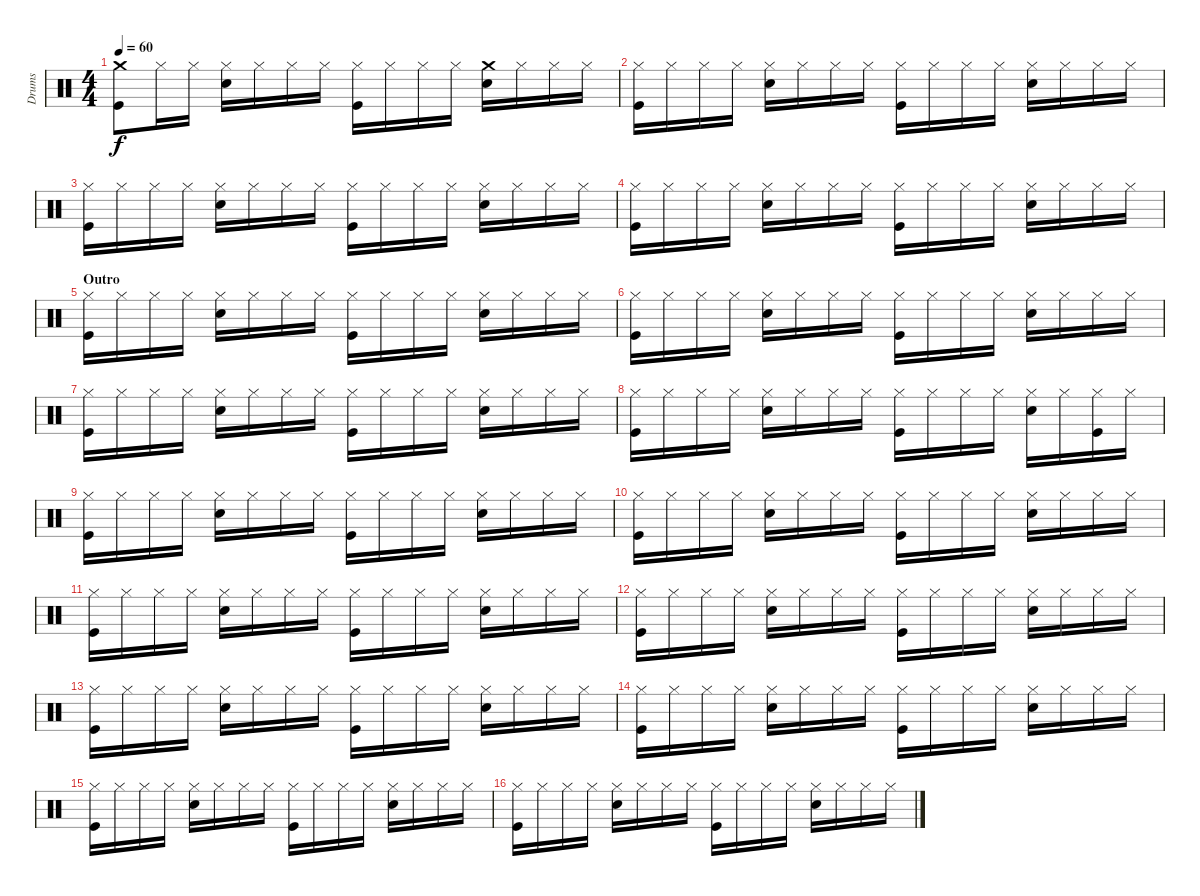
\track ("Drums" "Drums") {instrument percussion}
\staff {score}
\articulation defaults
\ts (4 4)
\tempo 60
\clef neutral
\ks c
("Kick (hit)" "Crash medium (hit)").8{dy f} "Hi-Hat (closed)".16 "Hi-Hat (closed)".16 ("Electric Snare (hit)" "Hi-Hat (closed)").16 "Hi-Hat (closed)".16 "Hi-Hat (closed)".16 "Hi-Hat (closed)".16 ("Kick (hit)" "Hi-Hat (closed)").16 "Hi-Hat (closed)".16 "Hi-Hat (closed)".16 "Hi-Hat (closed)".16 ("Electric Snare (hit)" "Crash medium (hit)").16 "Hi-Hat (closed)".16 "Hi-Hat (closed)".16 "Hi-Hat (closed)".16 |
("Kick (hit)" "Hi-Hat (closed)").16 "Hi-Hat (closed)".16 "Hi-Hat (closed)".16 "Hi-Hat (closed)".16 ("Electric Snare (hit)" "Hi-Hat (closed)").16 "Hi-Hat (closed)".16 "Hi-Hat (closed)".16 "Hi-Hat (closed)".16 ("Kick (hit)" "Hi-Hat (closed)").16 "Hi-Hat (closed)".16 "Hi-Hat (closed)".16 "Hi-Hat (closed)".16 ("Electric Snare (hit)" "Hi-Hat (closed)").16 "Hi-Hat (closed)".16 "Hi-Hat (closed)".16 "Hi-Hat (closed)".16 |
("Kick (hit)" "Hi-Hat (closed)").16 "Hi-Hat (closed)".16 "Hi-Hat (closed)".16 "Hi-Hat (closed)".16 ("Electric Snare (hit)" "Hi-Hat (closed)").16 "Hi-Hat (closed)".16 "Hi-Hat (closed)".16 "Hi-Hat (closed)".16 ("Kick (hit)" "Hi-Hat (closed)").16 "Hi-Hat (closed)".16 "Hi-Hat (closed)".16 "Hi-Hat (closed)".16 ("Electric Snare (hit)" "Hi-Hat (closed)").16 "Hi-Hat (closed)".16 "Hi-Hat (closed)".16 "Hi-Hat (closed)".16 |
("Kick (hit)" "Hi-Hat (closed)").16 "Hi-Hat (closed)".16 "Hi-Hat (closed)".16 "Hi-Hat (closed)".16 ("Electric Snare (hit)" "Hi-Hat (closed)").16 "Hi-Hat (closed)".16 "Hi-Hat (closed)".16 "Hi-Hat (closed)".16 ("Kick (hit)" "Hi-Hat (closed)").16 "Hi-Hat (closed)".16 "Hi-Hat (closed)".16 "Hi-Hat (closed)".16 ("Electric Snare (hit)" "Hi-Hat (closed)").16 "Hi-Hat (closed)".16 "Hi-Hat (closed)".16 "Hi-Hat (closed)".16 |
\section ("" "Outro")
("Kick (hit)" "Hi-Hat (closed)").16 "Hi-Hat (closed)".16 "Hi-Hat (closed)".16 "Hi-Hat (closed)".16 ("Electric Snare (hit)" "Hi-Hat (closed)").16 "Hi-Hat (closed)".16 "Hi-Hat (closed)".16 "Hi-Hat (closed)".16 ("Kick (hit)" "Hi-Hat (closed)").16 "Hi-Hat (closed)".16 "Hi-Hat (closed)".16 "Hi-Hat (closed)".16 ("Electric Snare (hit)" "Hi-Hat (closed)").16 "Hi-Hat (closed)".16 "Hi-Hat (closed)".16 "Hi-Hat (closed)".16 |
("Kick (hit)" "Hi-Hat (closed)").16 "Hi-Hat (closed)".16 "Hi-Hat (closed)".16 "Hi-Hat (closed)".16 ("Electric Snare (hit)" "Hi-Hat (closed)").16 "Hi-Hat (closed)".16 "Hi-Hat (closed)".16 "Hi-Hat (closed)".16 ("Kick (hit)" "Hi-Hat (closed)").16 "Hi-Hat (closed)".16 "Hi-Hat (closed)".16 "Hi-Hat (closed)".16 ("Electric Snare (hit)" "Hi-Hat (closed)").16 "Hi-Hat (closed)".16 "Hi-Hat (closed)".16 "Hi-Hat (closed)".16 |
("Kick (hit)" "Hi-Hat (closed)").16 "Hi-Hat (closed)".16 "Hi-Hat (closed)".16 "Hi-Hat (closed)".16 ("Electric Snare (hit)" "Hi-Hat (closed)").16 "Hi-Hat (closed)".16 "Hi-Hat (closed)".16 "Hi-Hat (closed)".16 ("Kick (hit)" "Hi-Hat (closed)").16 "Hi-Hat (closed)".16 "Hi-Hat (closed)".16 "Hi-Hat (closed)".16 ("Electric Snare (hit)" "Hi-Hat (closed)").16 "Hi-Hat (closed)".16 "Hi-Hat (closed)".16 "Hi-Hat (closed)".16 |
("Kick (hit)" "Hi-Hat (closed)").16 "Hi-Hat (closed)".16 "Hi-Hat (closed)".16 "Hi-Hat (closed)".16 ("Electric Snare (hit)" "Hi-Hat (closed)").16 "Hi-Hat (closed)".16 "Hi-Hat (closed)".16 "Hi-Hat (closed)".16 ("Kick (hit)" "Hi-Hat (closed)").16 "Hi-Hat (closed)".16 "Hi-Hat (closed)".16 "Hi-Hat (closed)".16 ("Electric Snare (hit)" "Hi-Hat (closed)").16 "Hi-Hat (closed)".16 ("Kick (hit)" "Hi-Hat (closed)").16 "Hi-Hat (closed)".16 |
("Kick (hit)" "Hi-Hat (closed)").16 "Hi-Hat (closed)".16 "Hi-Hat (closed)".16 "Hi-Hat (closed)".16 ("Electric Snare (hit)" "Hi-Hat (closed)").16 "Hi-Hat (closed)".16 "Hi-Hat (closed)".16 "Hi-Hat (closed)".16 ("Kick (hit)" "Hi-Hat (closed)").16 "Hi-Hat (closed)".16 "Hi-Hat (closed)".16 "Hi-Hat (closed)".16 ("Electric Snare (hit)" "Hi-Hat (closed)").16 "Hi-Hat (closed)".16 "Hi-Hat (closed)".16 "Hi-Hat (closed)".16 |
("Kick (hit)" "Hi-Hat (closed)").16 "Hi-Hat (closed)".16 "Hi-Hat (closed)".16 "Hi-Hat (closed)".16 ("Electric Snare (hit)" "Hi-Hat (closed)").16 "Hi-Hat (closed)".16 "Hi-Hat (closed)".16 "Hi-Hat (closed)".16 ("Kick (hit)" "Hi-Hat (closed)").16 "Hi-Hat (closed)".16 "Hi-Hat (closed)".16 "Hi-Hat (closed)".16 ("Electric Snare (hit)" "Hi-Hat (closed)").16 "Hi-Hat (closed)".16 "Hi-Hat (closed)".16 "Hi-Hat (closed)".16 |
("Kick (hit)" "Hi-Hat (closed)").16 "Hi-Hat (closed)".16 "Hi-Hat (closed)".16 "Hi-Hat (closed)".16 ("Electric Snare (hit)" "Hi-Hat (closed)").16 "Hi-Hat (closed)".16 "Hi-Hat (closed)".16 "Hi-Hat (closed)".16 ("Kick (hit)" "Hi-Hat (closed)").16 "Hi-Hat (closed)".16 "Hi-Hat (closed)".16 "Hi-Hat (closed)".16 ("Electric Snare (hit)" "Hi-Hat (closed)").16 "Hi-Hat (closed)".16 "Hi-Hat (closed)".16 "Hi-Hat (closed)".16 |
("Kick (hit)" "Hi-Hat (closed)").16 "Hi-Hat (closed)".16 "Hi-Hat (closed)".16 "Hi-Hat (closed)".16 ("Electric Snare (hit)" "Hi-Hat (closed)").16 "Hi-Hat (closed)".16 "Hi-Hat (closed)".16 "Hi-Hat (closed)".16 ("Kick (hit)" "Hi-Hat (closed)").16 "Hi-Hat (closed)".16 "Hi-Hat (closed)".16 "Hi-Hat (closed)".16 ("Electric Snare (hit)" "Hi-Hat (closed)").16 "Hi-Hat (closed)".16 "Hi-Hat (closed)".16 "Hi-Hat (closed)".16 |
("Kick (hit)" "Hi-Hat (closed)").16 "Hi-Hat (closed)".16 "Hi-Hat (closed)".16 "Hi-Hat (closed)".16 ("Electric Snare (hit)" "Hi-Hat (closed)").16 "Hi-Hat (closed)".16 "Hi-Hat (closed)".16 "Hi-Hat (closed)".16 ("Kick (hit)" "Hi-Hat (closed)").16 "Hi-Hat (closed)".16 "Hi-Hat (closed)".16 "Hi-Hat (closed)".16 ("Electric Snare (hit)" "Hi-Hat (closed)").16 "Hi-Hat (closed)".16 "Hi-Hat (closed)".16 "Hi-Hat (closed)".16 |
("Kick (hit)" "Hi-Hat (closed)").16 "Hi-Hat (closed)".16 "Hi-Hat (closed)".16 "Hi-Hat (closed)".16 ("Electric Snare (hit)" "Hi-Hat (closed)").16 "Hi-Hat (closed)".16 "Hi-Hat (closed)".16 "Hi-Hat (closed)".16 ("Kick (hit)" "Hi-Hat (closed)").16 "Hi-Hat (closed)".16 "Hi-Hat (closed)".16 "Hi-Hat (closed)".16 ("Electric Snare (hit)" "Hi-Hat (closed)").16 "Hi-Hat (closed)".16 "Hi-Hat (closed)".16 "Hi-Hat (closed)".16 |
("Kick (hit)" "Hi-Hat (closed)").16 "Hi-Hat (closed)".16 "Hi-Hat (closed)".16 "Hi-Hat (closed)".16 ("Electric Snare (hit)" "Hi-Hat (closed)").16 "Hi-Hat (closed)".16 "Hi-Hat (closed)".16 "Hi-Hat (closed)".16 ("Kick (hit)" "Hi-Hat (closed)").16 "Hi-Hat (closed)".16 "Hi-Hat (closed)".16 "Hi-Hat (closed)".16 ("Electric Snare (hit)" "Hi-Hat (closed)").16 "Hi-Hat (closed)".16 "Hi-Hat (closed)".16 "Hi-Hat (closed)".16 |
("Kick (hit)" "Hi-Hat (closed)").16 "Hi-Hat (closed)".16 "Hi-Hat (closed)".16 "Hi-Hat (closed)".16 ("Electric Snare (hit)" "Hi-Hat (closed)").16 "Hi-Hat (closed)".16 "Hi-Hat (closed)".16 "Hi-Hat (closed)".16 ("Kick (hit)" "Hi-Hat (closed)").16 "Hi-Hat (closed)".16 "Hi-Hat (closed)".16 "Hi-Hat (closed)".16 ("Electric Snare (hit)" "Hi-Hat (closed)").16 "Hi-Hat (closed)".16 "Hi-Hat (closed)".16 "Hi-Hat (closed)".16
